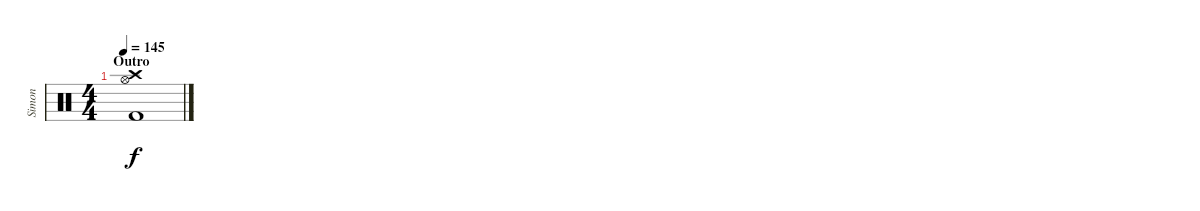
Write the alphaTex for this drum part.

\track ("Simon" "Simon") {instrument percussion}
\staff {score}
\articulation defaults
\ts (4 4)
\section ("" "Outro")
\tempo 145
\clef neutral
\ks c
("Crash high (hit)" "Hi-Hat (open)" "Kick (hit) 2").1{dy f}
